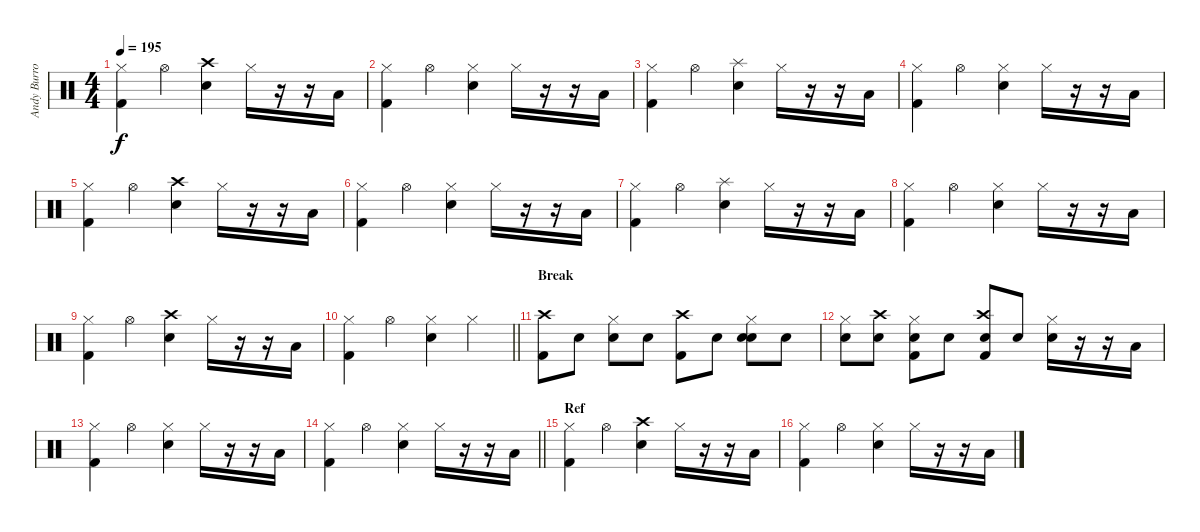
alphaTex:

\track ("Andy Burrows (drums)" "Andy Burro") {instrument percussion}
\staff {score}
\articulation defaults
\ts (4 4)
\tempo 195
\clef neutral
\ks c
("Hi-Hat (closed)" "Kick (hit) 2").4{dy f} "Hi-Hat (open)".4 ("Crash high (hit)" "Electric Snare (hit)").4 "Hi-Hat (closed)".16 r.16 r.16 "Low Floor Tom (hit)".16 |
("Hi-Hat (closed)" "Kick (hit) 2").4 "Hi-Hat (open)".4 ("Hi-Hat (closed)" "Electric Snare (hit)").4 "Hi-Hat (closed)".16 r.16 r.16 "Low Floor Tom (hit)".16 |
("Hi-Hat (closed)" "Kick (hit) 2").4 "Hi-Hat (open)".4 ("Splash (hit)" "Electric Snare (hit)").4 "Hi-Hat (closed)".16 r.16 r.16 "Low Floor Tom (hit)".16 |
("Hi-Hat (closed)" "Kick (hit) 2").4 "Hi-Hat (open)".4 ("Hi-Hat (closed)" "Electric Snare (hit)").4 "Hi-Hat (closed)".16 r.16 r.16 "Low Floor Tom (hit)".16 |
("Hi-Hat (closed)" "Kick (hit) 2").4 "Hi-Hat (open)".4 ("Crash high (hit)" "Electric Snare (hit)").4 "Hi-Hat (closed)".16 r.16 r.16 "Low Floor Tom (hit)".16 |
("Hi-Hat (closed)" "Kick (hit) 2").4 "Hi-Hat (open)".4 ("Hi-Hat (closed)" "Electric Snare (hit)").4 "Hi-Hat (closed)".16 r.16 r.16 "Low Floor Tom (hit)".16 |
("Hi-Hat (closed)" "Kick (hit) 2").4 "Hi-Hat (open)".4 ("Splash (hit)" "Electric Snare (hit)").4 "Hi-Hat (closed)".16 r.16 r.16 "Low Floor Tom (hit)".16 |
("Hi-Hat (closed)" "Kick (hit) 2").4 "Hi-Hat (open)".4 ("Hi-Hat (closed)" "Electric Snare (hit)").4 "Hi-Hat (closed)".16 r.16 r.16 "Low Floor Tom (hit)".16 |
("Hi-Hat (closed)" "Kick (hit) 2").4 "Hi-Hat (open)".4 ("Crash high (hit)" "Electric Snare (hit)").4 "Hi-Hat (closed)".16 r.16 r.16 "Low Floor Tom (hit)".16 |
\barLineRight lightlight
("Hi-Hat (closed)" "Kick (hit) 2").4 "Hi-Hat (open)".4 ("Hi-Hat (closed)" "Electric Snare (hit)").4 "Hi-Hat (closed)".4 |
\section ("" "Break")
("Crash high (hit)" "Kick (hit) 2").8 "Snare (hit)".8 ("Snare (hit)" "Hi-Hat (closed)").8 "Snare (hit)".8 ("Crash high (hit)" "Kick (hit) 2").8 "Snare (hit)".8 ("Snare (hit)" "Hi-Hat (closed)" "Electric Snare (hit)").8 "Snare (hit)".8 |
("Snare (hit)" "Hi-Hat (closed)").8 ("Crash high (hit)" "Electric Snare (hit)").8 ("Snare (hit)" "Hi-Hat (closed)" "Kick (hit) 2").8 "Snare (hit)".8 ("Crash high (hit)" "Electric Snare (hit)" "Kick (hit) 2").8 "Snare (hit)".8 ("Snare (hit)" "Hi-Hat (closed)").16 r.16 r.16 "Low Floor Tom (hit)".16 |
("Hi-Hat (closed)" "Kick (hit) 2").4 "Hi-Hat (open)".4 ("Hi-Hat (closed)" "Electric Snare (hit)").4 "Hi-Hat (closed)".16 r.16 r.16 "Low Floor Tom (hit)".16 |
\barLineRight lightlight
("Hi-Hat (closed)" "Kick (hit) 2").4 "Hi-Hat (open)".4 ("Hi-Hat (closed)" "Electric Snare (hit)").4 "Hi-Hat (closed)".16 r.16 r.16 "Low Floor Tom (hit)".16 |
\section ("" "Ref")
("Hi-Hat (closed)" "Kick (hit) 2").4 "Hi-Hat (open)".4 ("Crash high (hit)" "Electric Snare (hit)").4 "Hi-Hat (closed)".16 r.16 r.16 "Low Floor Tom (hit)".16 |
("Hi-Hat (closed)" "Kick (hit) 2").4 "Hi-Hat (open)".4 ("Hi-Hat (closed)" "Electric Snare (hit)").4 "Hi-Hat (closed)".16 r.16 r.16 "Low Floor Tom (hit)".16
